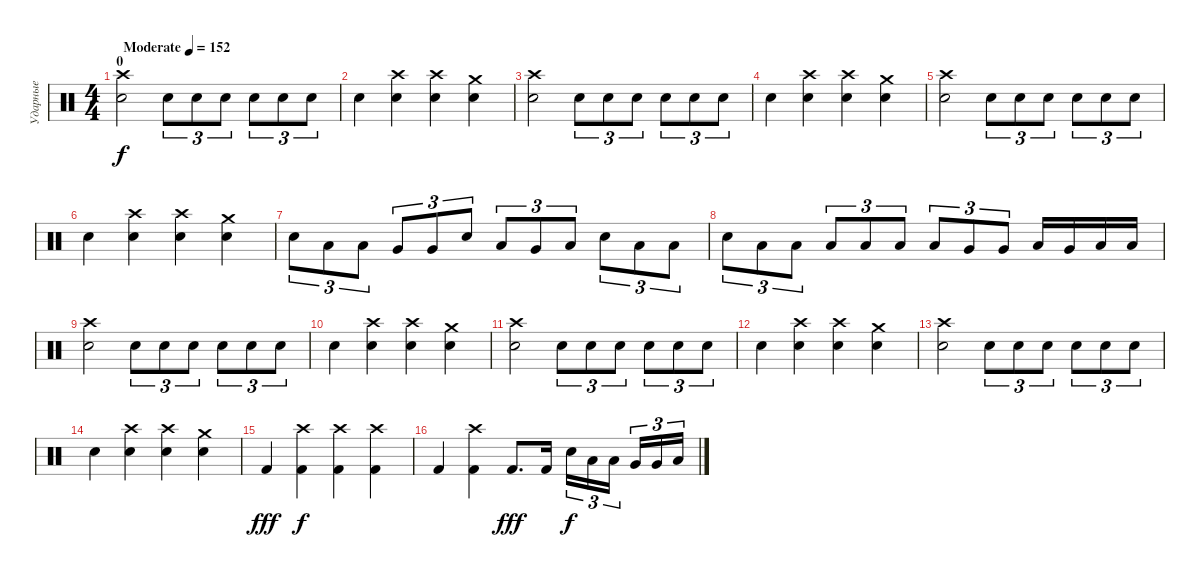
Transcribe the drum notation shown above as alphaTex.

\track ("Ударные" "Ударные") {instrument percussion}
\staff {score}
\articulation defaults
\ts (4 4)
\section ("" "0")
\tempo (152 "Moderate")
\clef neutral
\ks c
("Electric Snare (hit)" "Crash high (hit)").2{dy f} "Electric Snare (hit)".8{tu (3 2)} "Electric Snare (hit)".8{tu (3 2)} "Electric Snare (hit)".8{tu (3 2)} "Electric Snare (hit)".8{tu (3 2)} "Electric Snare (hit)".8{tu (3 2)} "Electric Snare (hit)".8{tu (3 2)} |
"Electric Snare (hit)".4 ("Electric Snare (hit)" "Crash high (hit)").4 ("Electric Snare (hit)" "Crash high (hit)").4 ("Electric Snare (hit)" "Crash medium (hit)").4 |
("Electric Snare (hit)" "Crash high (hit)").2 "Electric Snare (hit)".8{tu (3 2)} "Electric Snare (hit)".8{tu (3 2)} "Electric Snare (hit)".8{tu (3 2)} "Electric Snare (hit)".8{tu (3 2)} "Electric Snare (hit)".8{tu (3 2)} "Electric Snare (hit)".8{tu (3 2)} |
"Electric Snare (hit)".4 ("Electric Snare (hit)" "Crash high (hit)").4 ("Electric Snare (hit)" "Crash high (hit)").4 ("Electric Snare (hit)" "Crash medium (hit)").4 |
("Electric Snare (hit)" "Crash high (hit)").2 "Electric Snare (hit)".8{tu (3 2)} "Electric Snare (hit)".8{tu (3 2)} "Electric Snare (hit)".8{tu (3 2)} "Electric Snare (hit)".8{tu (3 2)} "Electric Snare (hit)".8{tu (3 2)} "Electric Snare (hit)".8{tu (3 2)} |
"Electric Snare (hit)".4 ("Electric Snare (hit)" "Crash high (hit)").4 ("Electric Snare (hit)" "Crash high (hit)").4 ("Electric Snare (hit)" "Crash medium (hit)").4 |
"Electric Snare (hit)".8{tu (3 2)} "Low Tom (hit)".8{tu (3 2)} "Low Tom (hit)".8{tu (3 2)} "Very Low Tom (hit)".8{tu (3 2)} "Very Low Tom (hit)".8{tu (3 2)} "Electric Snare (hit)".8{tu (3 2)} "Low Tom (hit)".8{tu (3 2)} "Very Low Tom (hit)".8{tu (3 2)} "Low Floor Tom (hit)".8{tu (3 2)} "Electric Snare (hit)".8{tu (3 2)} "Low Tom (hit)".8{tu (3 2)} "Low Tom (hit)".8{tu (3 2)} |
"Electric Snare (hit)".8{tu (3 2)} "Low Tom (hit)".8{tu (3 2)} "Low Tom (hit)".8{tu (3 2)} "Low Tom (hit)".8{tu (3 2)} "Low Tom (hit)".8{tu (3 2)} "Low Tom (hit)".8{tu (3 2)} "Low Tom (hit)".8{tu (3 2)} "Very Low Tom (hit)".8{tu (3 2)} "Very Low Tom (hit)".8{tu (3 2)} "Low Tom (hit)".16 "Very Low Tom (hit)".16 "Low Floor Tom (hit)".16 "Low Floor Tom (hit)".16 |
("Electric Snare (hit)" "Crash high (hit)").2 "Electric Snare (hit)".8{tu (3 2)} "Electric Snare (hit)".8{tu (3 2)} "Electric Snare (hit)".8{tu (3 2)} "Electric Snare (hit)".8{tu (3 2)} "Electric Snare (hit)".8{tu (3 2)} "Electric Snare (hit)".8{tu (3 2)} |
"Electric Snare (hit)".4 ("Electric Snare (hit)" "Crash high (hit)").4 ("Electric Snare (hit)" "Crash high (hit)").4 ("Electric Snare (hit)" "Crash medium (hit)").4 |
("Electric Snare (hit)" "Crash high (hit)").2 "Electric Snare (hit)".8{tu (3 2)} "Electric Snare (hit)".8{tu (3 2)} "Electric Snare (hit)".8{tu (3 2)} "Electric Snare (hit)".8{tu (3 2)} "Electric Snare (hit)".8{tu (3 2)} "Electric Snare (hit)".8{tu (3 2)} |
"Electric Snare (hit)".4 ("Electric Snare (hit)" "Crash high (hit)").4 ("Electric Snare (hit)" "Crash high (hit)").4 ("Electric Snare (hit)" "Crash medium (hit)").4 |
("Electric Snare (hit)" "Crash high (hit)").2 "Electric Snare (hit)".8{tu (3 2)} "Electric Snare (hit)".8{tu (3 2)} "Electric Snare (hit)".8{tu (3 2)} "Electric Snare (hit)".8{tu (3 2)} "Electric Snare (hit)".8{tu (3 2)} "Electric Snare (hit)".8{tu (3 2)} |
"Electric Snare (hit)".4 ("Electric Snare (hit)" "Crash high (hit)").4 ("Electric Snare (hit)" "Crash high (hit)").4 ("Electric Snare (hit)" "Crash medium (hit)").4 |
"Kick (hit) 2".4{dy fff} ("Kick (hit) 2" "Crash high (hit)").4{dy f} ("Kick (hit) 2" "Crash high (hit)").4 ("Kick (hit) 2" "Crash high (hit)").4 |
"Kick (hit) 2".4 ("Kick (hit) 2" "Crash high (hit)").4 "Kick (hit) 2".8{d dy fff} "Kick (hit) 2".16 "Electric Snare (hit)".16{tu (3 2) dy f} "Low Tom (hit)".16{tu (3 2)} "Low Tom (hit)".16{tu (3 2) beam splitsecondary} "Very Low Tom (hit)".16{tu (3 2)} "Very Low Tom (hit)".16{tu (3 2)} "Low Floor Tom (hit)".16{tu (3 2)}
